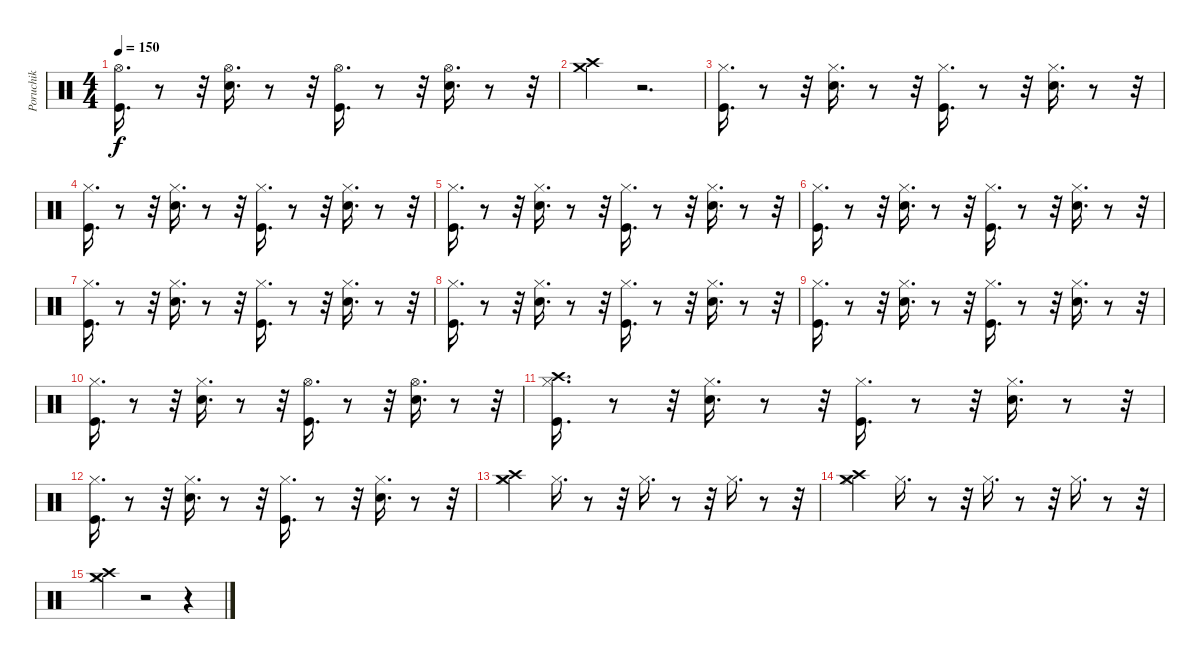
\track ("Poruchik" "Poruchik") {instrument percussion}
\staff {score}
\articulation defaults
\ts (4 4)
\tempo 150
\clef neutral
\ks c
("Kick (hit)" "Hi-Hat (open)").16{d dy f} r.8 r.32 ("Hi-Hat (open)" "Electric Snare (hit)").16{d} r.8 r.32 ("Hi-Hat (open)" "Kick (hit)").16{d} r.8 r.32 ("Hi-Hat (open)" "Electric Snare (hit)").16{d} r.8 r.32 |
("Crash medium (hit)" "Crash high (hit)").4 r.2{d} |
("Kick (hit)" "Hi-Hat (closed)").16{d} r.8 r.32 ("Hi-Hat (closed)" "Electric Snare (hit)").16{d} r.8 r.32 ("Kick (hit)" "Hi-Hat (closed)").16{d} r.8 r.32 ("Electric Snare (hit)" "Hi-Hat (closed)").16{d} r.8 r.32 |
("Hi-Hat (closed)" "Kick (hit)").16{d} r.8 r.32 ("Electric Snare (hit)" "Hi-Hat (closed)").16{d} r.8 r.32 ("Kick (hit)" "Hi-Hat (closed)").16{d} r.8 r.32 ("Hi-Hat (closed)" "Electric Snare (hit)").16{d} r.8 r.32 |
("Kick (hit)" "Hi-Hat (closed)").16{d} r.8 r.32 ("Hi-Hat (closed)" "Electric Snare (hit)").16{d} r.8 r.32 ("Hi-Hat (closed)" "Kick (hit)").16{d} r.8 r.32 ("Hi-Hat (closed)" "Electric Snare (hit)").16{d} r.8 r.32 |
("Hi-Hat (closed)" "Kick (hit)").16{d} r.8 r.32 ("Electric Snare (hit)" "Hi-Hat (closed)").16{d} r.8 r.32 ("Kick (hit)" "Hi-Hat (closed)").16{d} r.8 r.32 ("Hi-Hat (closed)" "Electric Snare (hit)").16{d} r.8 r.32 |
("Hi-Hat (closed)" "Kick (hit)").16{d} r.8 r.32 ("Hi-Hat (closed)" "Electric Snare (hit)").16{d} r.8 r.32 ("Hi-Hat (closed)" "Kick (hit)").16{d} r.8 r.32 ("Electric Snare (hit)" "Hi-Hat (closed)").16{d} r.8 r.32 |
("Hi-Hat (closed)" "Kick (hit)").16{d} r.8 r.32 ("Electric Snare (hit)" "Hi-Hat (closed)").16{d} r.8 r.32 ("Hi-Hat (closed)" "Kick (hit)").16{d} r.8 r.32 ("Electric Snare (hit)" "Hi-Hat (closed)").16{d} r.8 r.32 |
("Kick (hit)" "Hi-Hat (closed)").16{d} r.8 r.32 ("Electric Snare (hit)" "Hi-Hat (closed)").16{d} r.8 r.32 ("Hi-Hat (closed)" "Kick (hit)").16{d} r.8 r.32 ("Electric Snare (hit)" "Hi-Hat (closed)").16{d} r.8 r.32 |
("Kick (hit)" "Hi-Hat (closed)").16{d} r.8 r.32 ("Electric Snare (hit)" "Hi-Hat (closed)").16{d} r.8 r.32 ("Hi-Hat (open)" "Kick (hit)").16{d} r.8 r.32 ("Hi-Hat (open)" "Electric Snare (hit)").16{d} r.8 r.32 |
("Kick (hit)" "Crash high (hit)" "Hi-Hat (closed)").16{d} r.8 r.32 ("Hi-Hat (closed)" "Electric Snare (hit)").16{d} r.8 r.32 ("Kick (hit)" "Hi-Hat (closed)").16{d} r.8 r.32 ("Hi-Hat (closed)" "Electric Snare (hit)").16{d} r.8 r.32 |
("Hi-Hat (closed)" "Kick (hit)").16{d} r.8 r.32 ("Hi-Hat (closed)" "Electric Snare (hit)").16{d} r.8 r.32 ("Hi-Hat (closed)" "Kick (hit)").16{d} r.8 r.32 ("Electric Snare (hit)" "Hi-Hat (closed)").16{d} r.8 r.32 |
("Crash high (hit)" "Crash medium (hit)" "Hi-Hat (closed)").4 "Hi-Hat (closed)".16{d} r.8 r.32 "Hi-Hat (closed)".16{d} r.8 r.32 "Hi-Hat (closed)".16{d} r.8 r.32 |
("Crash high (hit)" "Crash medium (hit)" "Hi-Hat (closed)").4 "Hi-Hat (closed)".16{d} r.8 r.32 "Hi-Hat (closed)".16{d} r.8 r.32 "Hi-Hat (closed)".16{d} r.8 r.32 |
("Crash high (hit)" "Crash medium (hit)" "Hi-Hat (closed)").4 r.2 r.4
